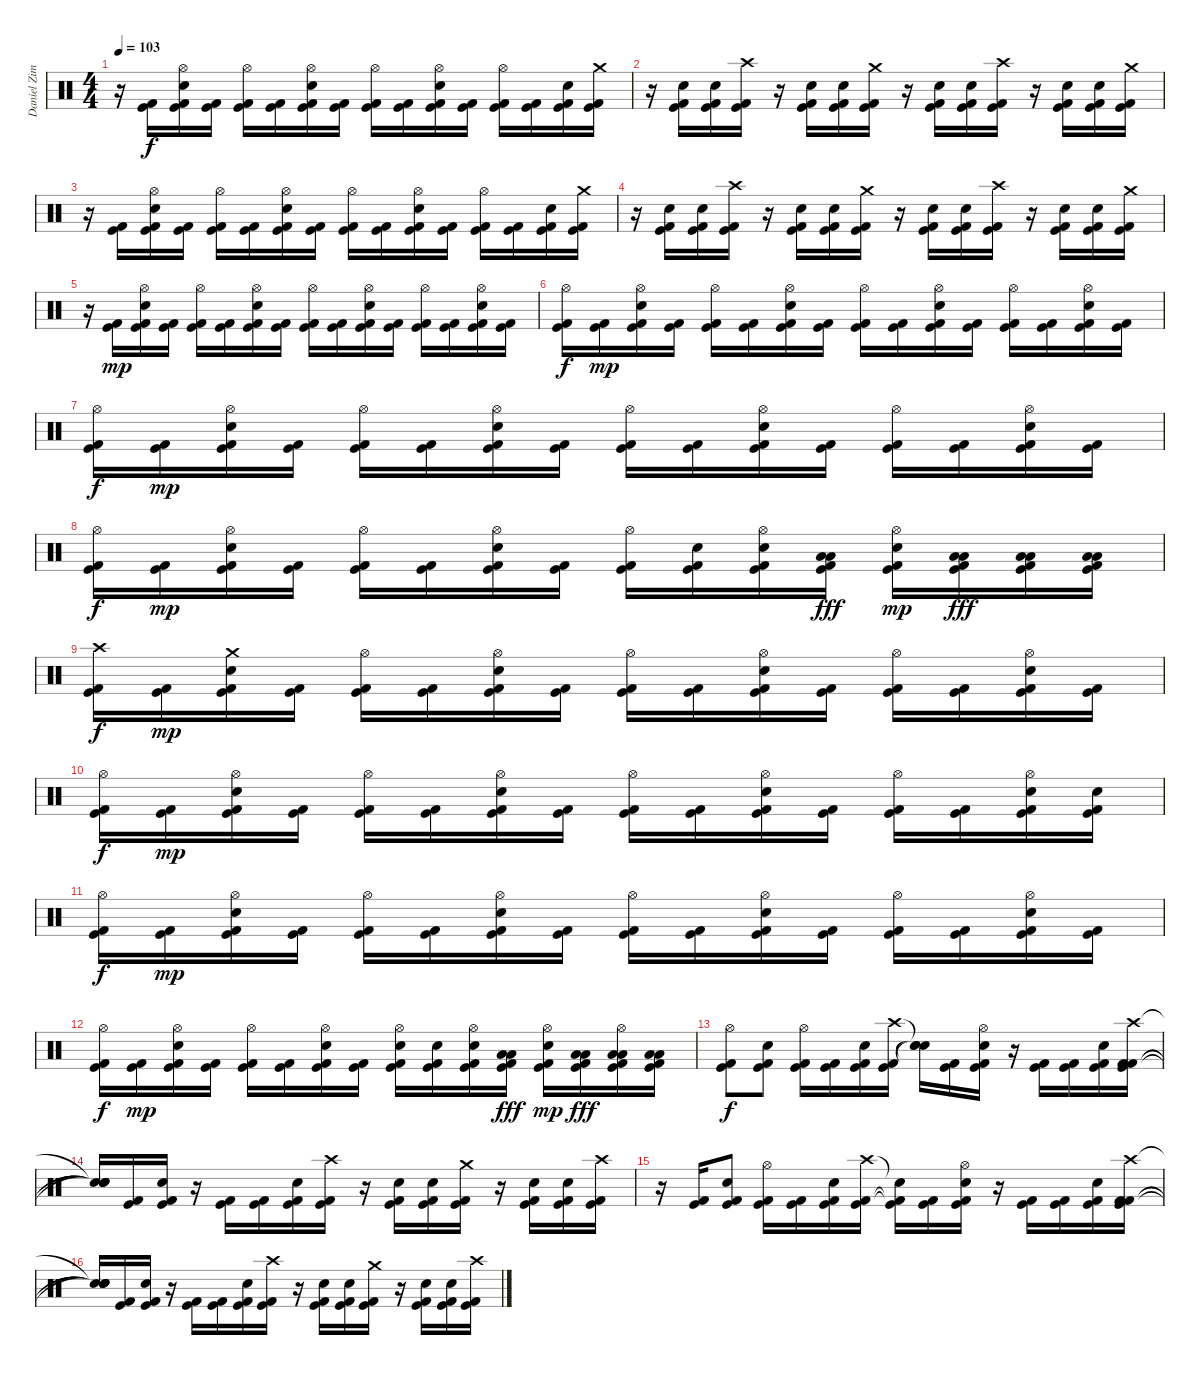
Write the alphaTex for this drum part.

\track ("Daniel Zimmermann - Drums" "Daniel Zim") {instrument percussion}
\staff {score}
\articulation defaults
\ts (4 4)
\tempo 103
\clef neutral
\ks c
r.16{dy f} ("Kick (hit)" "Kick (hit) 2").16 ("Kick (hit)" "Kick (hit) 2" "Electric Snare (hit)" "Hi-Hat (open)").16 ("Kick (hit)" "Kick (hit) 2").16 ("Kick (hit)" "Kick (hit) 2" "Hi-Hat (open)").16 ("Kick (hit)" "Kick (hit) 2").16 ("Kick (hit)" "Kick (hit) 2" "Electric Snare (hit)" "Hi-Hat (open)").16 ("Kick (hit)" "Kick (hit) 2").16 ("Kick (hit)" "Kick (hit) 2" "Hi-Hat (open)").16 ("Kick (hit)" "Kick (hit) 2").16 ("Kick (hit)" "Kick (hit) 2" "Electric Snare (hit)" "Hi-Hat (open)").16 ("Kick (hit)" "Kick (hit) 2").16 ("Kick (hit)" "Kick (hit) 2" "Hi-Hat (open)").16 ("Kick (hit)" "Kick (hit) 2").16 ("Kick (hit)" "Kick (hit) 2" "Electric Snare (hit)").16 ("Kick (hit)" "Kick (hit) 2" "Crash medium (hit)").16 |
r.16 ("Kick (hit)" "Kick (hit) 2" "Electric Snare (hit)").16 ("Kick (hit)" "Kick (hit) 2" "Electric Snare (hit)").16 ("Kick (hit)" "Kick (hit) 2" "Crash high (hit)").16 r.16 ("Kick (hit)" "Kick (hit) 2" "Electric Snare (hit)").16 ("Kick (hit)" "Kick (hit) 2" "Electric Snare (hit)").16 ("Kick (hit)" "Kick (hit) 2" "Crash medium (hit)").16 r.16 ("Kick (hit)" "Kick (hit) 2" "Electric Snare (hit)").16 ("Kick (hit)" "Kick (hit) 2" "Electric Snare (hit)").16 ("Kick (hit)" "Kick (hit) 2" "Crash high (hit)").16 r.16 ("Kick (hit)" "Kick (hit) 2" "Electric Snare (hit)").16 ("Kick (hit)" "Kick (hit) 2" "Electric Snare (hit)").16 ("Kick (hit)" "Kick (hit) 2" "Crash medium (hit)").16 |
r.16 ("Kick (hit)" "Kick (hit) 2").16 ("Kick (hit)" "Kick (hit) 2" "Electric Snare (hit)" "Hi-Hat (open)").16 ("Kick (hit)" "Kick (hit) 2").16 ("Kick (hit)" "Kick (hit) 2" "Hi-Hat (open)").16 ("Kick (hit)" "Kick (hit) 2").16 ("Kick (hit)" "Kick (hit) 2" "Electric Snare (hit)" "Hi-Hat (open)").16 ("Kick (hit)" "Kick (hit) 2").16 ("Kick (hit)" "Kick (hit) 2" "Hi-Hat (open)").16 ("Kick (hit)" "Kick (hit) 2").16 ("Kick (hit)" "Kick (hit) 2" "Electric Snare (hit)" "Hi-Hat (open)").16 ("Kick (hit)" "Kick (hit) 2").16 ("Kick (hit)" "Kick (hit) 2" "Hi-Hat (open)").16 ("Kick (hit)" "Kick (hit) 2").16 ("Kick (hit)" "Kick (hit) 2" "Electric Snare (hit)").16 ("Kick (hit)" "Kick (hit) 2" "Crash medium (hit)").16 |
r.16 ("Kick (hit)" "Kick (hit) 2" "Electric Snare (hit)").16 ("Kick (hit)" "Kick (hit) 2" "Electric Snare (hit)").16 ("Kick (hit)" "Kick (hit) 2" "Crash high (hit)").16 r.16 ("Kick (hit)" "Kick (hit) 2" "Electric Snare (hit)").16 ("Kick (hit)" "Kick (hit) 2" "Electric Snare (hit)").16 ("Kick (hit)" "Kick (hit) 2" "Crash medium (hit)").16 r.16 ("Kick (hit)" "Kick (hit) 2" "Electric Snare (hit)").16 ("Kick (hit)" "Kick (hit) 2" "Electric Snare (hit)").16 ("Kick (hit)" "Kick (hit) 2" "Crash high (hit)").16 r.16 ("Kick (hit)" "Kick (hit) 2" "Electric Snare (hit)").16 ("Kick (hit)" "Kick (hit) 2" "Electric Snare (hit)").16 ("Kick (hit)" "Kick (hit) 2" "Crash medium (hit)").16 |
r.16 ("Kick (hit)" "Kick (hit) 2").16{dy mp} ("Kick (hit)" "Kick (hit) 2" "Electric Snare (hit)" "Hi-Hat (open)").16 ("Kick (hit)" "Kick (hit) 2").16 ("Kick (hit)" "Kick (hit) 2" "Hi-Hat (open)").16 ("Kick (hit)" "Kick (hit) 2").16 ("Kick (hit)" "Kick (hit) 2" "Electric Snare (hit)" "Hi-Hat (open)").16 ("Kick (hit)" "Kick (hit) 2").16 ("Kick (hit)" "Kick (hit) 2" "Hi-Hat (open)").16 ("Kick (hit)" "Kick (hit) 2").16 ("Kick (hit)" "Kick (hit) 2" "Electric Snare (hit)" "Hi-Hat (open)").16 ("Kick (hit)" "Kick (hit) 2").16 ("Kick (hit)" "Kick (hit) 2" "Hi-Hat (open)").16 ("Kick (hit)" "Kick (hit) 2").16 ("Kick (hit)" "Kick (hit) 2" "Electric Snare (hit)" "Hi-Hat (open)").16 ("Kick (hit)" "Kick (hit) 2").16 |
("Kick (hit)" "Kick (hit) 2" "Hi-Hat (open)").16{dy f} ("Kick (hit)" "Kick (hit) 2").16{dy mp} ("Kick (hit)" "Kick (hit) 2" "Electric Snare (hit)" "Hi-Hat (open)").16 ("Kick (hit)" "Kick (hit) 2").16 ("Kick (hit)" "Kick (hit) 2" "Hi-Hat (open)").16 ("Kick (hit)" "Kick (hit) 2").16 ("Kick (hit)" "Kick (hit) 2" "Electric Snare (hit)" "Hi-Hat (open)").16 ("Kick (hit)" "Kick (hit) 2").16 ("Kick (hit)" "Kick (hit) 2" "Hi-Hat (open)").16 ("Kick (hit)" "Kick (hit) 2").16 ("Kick (hit)" "Kick (hit) 2" "Electric Snare (hit)" "Hi-Hat (open)").16 ("Kick (hit)" "Kick (hit) 2").16 ("Kick (hit)" "Kick (hit) 2" "Hi-Hat (open)").16 ("Kick (hit)" "Kick (hit) 2").16 ("Kick (hit)" "Kick (hit) 2" "Electric Snare (hit)" "Hi-Hat (open)").16 ("Kick (hit)" "Kick (hit) 2").16 |
("Kick (hit)" "Kick (hit) 2" "Hi-Hat (open)").16{dy f} ("Kick (hit)" "Kick (hit) 2").16{dy mp} ("Kick (hit)" "Kick (hit) 2" "Electric Snare (hit)" "Hi-Hat (open)").16 ("Kick (hit)" "Kick (hit) 2").16 ("Kick (hit)" "Kick (hit) 2" "Hi-Hat (open)").16 ("Kick (hit)" "Kick (hit) 2").16 ("Kick (hit)" "Kick (hit) 2" "Electric Snare (hit)" "Hi-Hat (open)").16 ("Kick (hit)" "Kick (hit) 2").16 ("Kick (hit)" "Kick (hit) 2" "Hi-Hat (open)").16 ("Kick (hit)" "Kick (hit) 2").16 ("Kick (hit)" "Kick (hit) 2" "Electric Snare (hit)" "Hi-Hat (open)").16 ("Kick (hit)" "Kick (hit) 2").16 ("Kick (hit)" "Kick (hit) 2" "Hi-Hat (open)").16 ("Kick (hit)" "Kick (hit) 2").16 ("Kick (hit)" "Kick (hit) 2" "Electric Snare (hit)" "Hi-Hat (open)").16 ("Kick (hit)" "Kick (hit) 2").16 |
("Kick (hit)" "Kick (hit) 2" "Hi-Hat (open)").16{dy f} ("Kick (hit)" "Kick (hit) 2").16{dy mp} ("Kick (hit)" "Kick (hit) 2" "Electric Snare (hit)" "Hi-Hat (open)").16 ("Kick (hit)" "Kick (hit) 2").16 ("Kick (hit)" "Kick (hit) 2" "Hi-Hat (open)").16 ("Kick (hit)" "Kick (hit) 2").16 ("Kick (hit)" "Kick (hit) 2" "Electric Snare (hit)" "Hi-Hat (open)").16 ("Kick (hit)" "Kick (hit) 2").16 ("Kick (hit)" "Kick (hit) 2" "Hi-Hat (open)").16 ("Kick (hit)" "Kick (hit) 2" "Electric Snare (hit)").16 ("Kick (hit)" "Kick (hit) 2" "Electric Snare (hit)" "Hi-Hat (open)").16 ("Kick (hit)" "Kick (hit) 2" "Low Tom (hit)" "Low Tom (hit)").16{dy fff} ("Kick (hit)" "Kick (hit) 2" "Electric Snare (hit)" "Hi-Hat (open)").16{dy mp} ("Kick (hit)" "Kick (hit) 2" "Low Tom (hit)" "Low Tom (hit)").16{dy fff} ("Kick (hit)" "Kick (hit) 2" "Low Tom (hit)" "Low Tom (hit)").16 ("Kick (hit)" "Kick (hit) 2" "Low Tom (hit)" "Low Tom (hit)").16 |
("Kick (hit)" "Kick (hit) 2" "Crash high (hit)").16{dy f} ("Kick (hit)" "Kick (hit) 2").16{dy mp} ("Kick (hit)" "Kick (hit) 2" "Electric Snare (hit)" "Crash medium (hit)").16 ("Kick (hit)" "Kick (hit) 2").16 ("Kick (hit)" "Kick (hit) 2" "Hi-Hat (open)").16 ("Kick (hit)" "Kick (hit) 2").16 ("Kick (hit)" "Kick (hit) 2" "Electric Snare (hit)" "Hi-Hat (open)").16 ("Kick (hit)" "Kick (hit) 2").16 ("Kick (hit)" "Kick (hit) 2" "Hi-Hat (open)").16 ("Kick (hit)" "Kick (hit) 2").16 ("Kick (hit)" "Kick (hit) 2" "Electric Snare (hit)" "Hi-Hat (open)").16 ("Kick (hit)" "Kick (hit) 2").16 ("Kick (hit)" "Kick (hit) 2" "Hi-Hat (open)").16 ("Kick (hit)" "Kick (hit) 2").16 ("Kick (hit)" "Kick (hit) 2" "Electric Snare (hit)" "Hi-Hat (open)").16 ("Kick (hit)" "Kick (hit) 2").16 |
("Kick (hit)" "Kick (hit) 2" "Hi-Hat (open)").16{dy f} ("Kick (hit)" "Kick (hit) 2").16{dy mp} ("Kick (hit)" "Kick (hit) 2" "Electric Snare (hit)" "Hi-Hat (open)").16 ("Kick (hit)" "Kick (hit) 2").16 ("Kick (hit)" "Kick (hit) 2" "Hi-Hat (open)").16 ("Kick (hit)" "Kick (hit) 2").16 ("Kick (hit)" "Kick (hit) 2" "Electric Snare (hit)" "Hi-Hat (open)").16 ("Kick (hit)" "Kick (hit) 2").16 ("Kick (hit)" "Kick (hit) 2" "Hi-Hat (open)").16 ("Kick (hit)" "Kick (hit) 2").16 ("Kick (hit)" "Kick (hit) 2" "Electric Snare (hit)" "Hi-Hat (open)").16 ("Kick (hit)" "Kick (hit) 2").16 ("Kick (hit)" "Kick (hit) 2" "Hi-Hat (open)").16 ("Kick (hit)" "Kick (hit) 2").16 ("Kick (hit)" "Kick (hit) 2" "Electric Snare (hit)" "Hi-Hat (open)").16 ("Kick (hit)" "Kick (hit) 2" "Electric Snare (hit)").16 |
("Kick (hit)" "Kick (hit) 2" "Hi-Hat (open)").16{dy f} ("Kick (hit)" "Kick (hit) 2").16{dy mp} ("Kick (hit)" "Kick (hit) 2" "Electric Snare (hit)" "Hi-Hat (open)").16 ("Kick (hit)" "Kick (hit) 2").16 ("Kick (hit)" "Kick (hit) 2" "Hi-Hat (open)").16 ("Kick (hit)" "Kick (hit) 2").16 ("Kick (hit)" "Kick (hit) 2" "Electric Snare (hit)" "Hi-Hat (open)").16 ("Kick (hit)" "Kick (hit) 2").16 ("Kick (hit)" "Kick (hit) 2" "Hi-Hat (open)").16 ("Kick (hit)" "Kick (hit) 2").16 ("Kick (hit)" "Kick (hit) 2" "Electric Snare (hit)" "Hi-Hat (open)").16 ("Kick (hit)" "Kick (hit) 2").16 ("Kick (hit)" "Kick (hit) 2" "Hi-Hat (open)").16 ("Kick (hit)" "Kick (hit) 2").16 ("Kick (hit)" "Kick (hit) 2" "Electric Snare (hit)" "Hi-Hat (open)").16 ("Kick (hit)" "Kick (hit) 2").16 |
("Kick (hit)" "Kick (hit) 2" "Hi-Hat (open)").16{dy f} ("Kick (hit)" "Kick (hit) 2").16{dy mp} ("Kick (hit)" "Kick (hit) 2" "Electric Snare (hit)" "Hi-Hat (open)").16 ("Kick (hit)" "Kick (hit) 2").16 ("Kick (hit)" "Kick (hit) 2" "Hi-Hat (open)").16 ("Kick (hit)" "Kick (hit) 2").16 ("Kick (hit)" "Kick (hit) 2" "Electric Snare (hit)" "Hi-Hat (open)").16 ("Kick (hit)" "Kick (hit) 2").16 ("Kick (hit)" "Kick (hit) 2" "Electric Snare (hit)" "Hi-Hat (open)").16 ("Kick (hit)" "Kick (hit) 2" "Electric Snare (hit)").16 ("Kick (hit)" "Kick (hit) 2" "Electric Snare (hit)" "Hi-Hat (open)").16 ("Kick (hit)" "Kick (hit) 2" "Low Tom (hit)" "Low Tom (hit)").16{dy fff} ("Kick (hit)" "Kick (hit) 2" "Electric Snare (hit)" "Hi-Hat (open)").16{dy mp} ("Kick (hit)" "Kick (hit) 2" "Low Tom (hit)" "Low Tom (hit)").16{dy fff} ("Kick (hit)" "Kick (hit) 2" "Low Tom (hit)" "Hi-Hat (open)" "Low Tom (hit)").16 ("Kick (hit)" "Kick (hit) 2" "Low Tom (hit)" "Low Tom (hit)").16 |
("Kick (hit)" "Kick (hit) 2" "Hi-Hat (open)").8{dy f} ("Kick (hit)" "Kick (hit) 2" "Electric Snare (hit)").8 ("Kick (hit)" "Kick (hit) 2" "Hi-Hat (open)").16 ("Kick (hit)" "Kick (hit) 2").16 ("Kick (hit)" "Kick (hit) 2" "Electric Snare (hit)").16 ("Kick (hit)" "Kick (hit) 2" "Crash high (hit)").16 ("Snare (hit)"{t} "Snare (hit)"{t} "Snare (hit)"{t}).16 ("Kick (hit)" "Kick (hit) 2").16 ("Kick (hit)" "Kick (hit) 2" "Electric Snare (hit)" "Hi-Hat (open)").16 r.16 ("Kick (hit)" "Kick (hit) 2").16 ("Kick (hit)" "Kick (hit) 2").16 ("Kick (hit)" "Kick (hit) 2" "Electric Snare (hit)").16 ("Kick (hit)" "Kick (hit) 2" "Kick (hit) 2" "Crash high (hit)").16 |
("Snare (hit)"{t} "Snare (hit)"{t} "Snare (hit)"{t} "Snare (hit)"{t}).16 ("Kick (hit)" "Kick (hit) 2").16 ("Kick (hit)" "Kick (hit) 2" "Electric Snare (hit)").16 r.16 ("Kick (hit)" "Kick (hit) 2").16 ("Kick (hit)" "Kick (hit) 2").16 ("Kick (hit)" "Kick (hit) 2" "Electric Snare (hit)").16 ("Kick (hit)" "Kick (hit) 2" "Crash high (hit)").16 r.16 ("Kick (hit)" "Kick (hit) 2" "Electric Snare (hit)").16 ("Kick (hit)" "Kick (hit) 2" "Electric Snare (hit)").16 ("Kick (hit)" "Kick (hit) 2" "Crash medium (hit)").16 r.16 ("Kick (hit)" "Kick (hit) 2" "Electric Snare (hit)").16 ("Kick (hit)" "Kick (hit) 2" "Electric Snare (hit)").16 ("Kick (hit)" "Kick (hit) 2" "Crash high (hit)").16 |
r.16 ("Kick (hit)" "Kick (hit) 2").16 ("Kick (hit)" "Kick (hit) 2" "Electric Snare (hit)").8 ("Kick (hit)" "Kick (hit) 2" "Hi-Hat (open)").16 ("Kick (hit)" "Kick (hit) 2").16 ("Kick (hit)" "Kick (hit) 2" "Electric Snare (hit)").16 ("Kick (hit)" "Kick (hit) 2" "Crash high (hit)").16 ("Kick (hit)"{t} "Kick (hit) 2"{t} "Snare (hit)"{t}).16 ("Kick (hit)" "Kick (hit) 2").16 ("Kick (hit)" "Kick (hit) 2" "Electric Snare (hit)" "Hi-Hat (open)").16 r.16 ("Kick (hit)" "Kick (hit) 2").16 ("Kick (hit)" "Kick (hit) 2").16 ("Kick (hit)" "Kick (hit) 2" "Electric Snare (hit)").16 ("Kick (hit)" "Kick (hit) 2" "Kick (hit) 2" "Crash high (hit)").16 |
("Snare (hit)"{t} "Snare (hit)"{t} "Snare (hit)"{t} "Snare (hit)"{t}).16 ("Kick (hit)" "Kick (hit) 2").16 ("Kick (hit)" "Kick (hit) 2" "Electric Snare (hit)").16 r.16 ("Kick (hit)" "Kick (hit) 2").16 ("Kick (hit)" "Kick (hit) 2").16 ("Kick (hit)" "Kick (hit) 2" "Electric Snare (hit)").16 ("Kick (hit)" "Kick (hit) 2" "Crash high (hit)").16 r.16 ("Kick (hit)" "Kick (hit) 2" "Electric Snare (hit)").16 ("Kick (hit)" "Kick (hit) 2" "Electric Snare (hit)").16 ("Kick (hit)" "Kick (hit) 2" "Crash medium (hit)").16 r.16 ("Kick (hit)" "Kick (hit) 2" "Electric Snare (hit)").16 ("Kick (hit)" "Kick (hit) 2" "Electric Snare (hit)").16 ("Kick (hit)" "Kick (hit) 2" "Crash high (hit)").16
